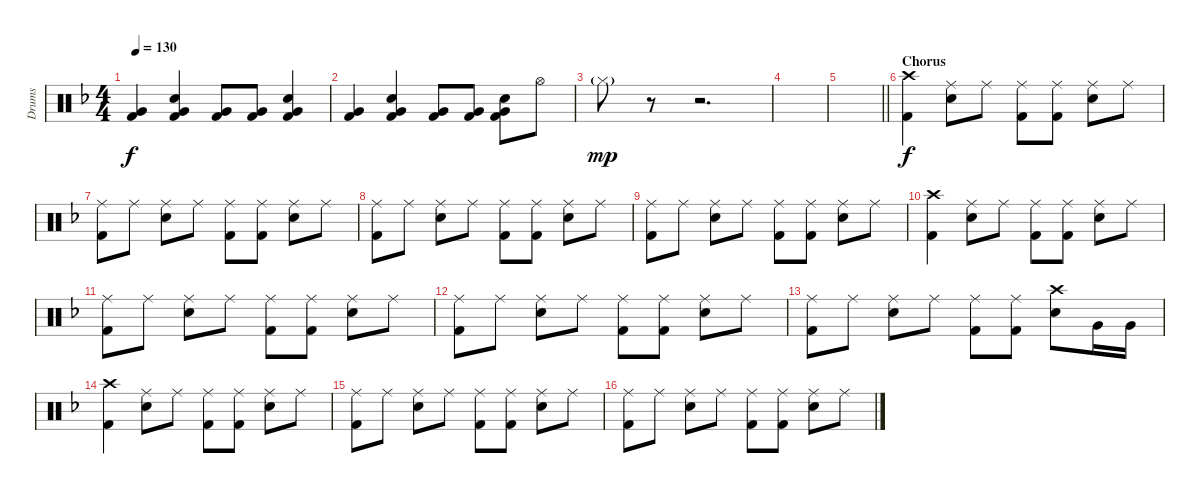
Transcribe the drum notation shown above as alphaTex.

\track ("Drums" "Drums") {instrument percussion}
\staff {score}
\articulation defaults
\ts (4 4)
\tempo 130
\clef neutral
\ks f
("Very Low Tom (hit)" "Kick (hit) 2").4{dy f} ("Snare (hit) 2" "Very Low Tom (hit)" "Kick (hit) 2").4 ("Very Low Tom (hit)" "Kick (hit) 2").8 ("Very Low Tom (hit)" "Kick (hit) 2").8 ("Snare (hit) 2" "Very Low Tom (hit)" "Kick (hit) 2").4 |
("Very Low Tom (hit)" "Kick (hit) 2").4 ("Snare (hit) 2" "Very Low Tom (hit)" "Kick (hit) 2").4 ("Very Low Tom (hit)" "Kick (hit) 2").8 ("Very Low Tom (hit)" "Kick (hit) 2").8 ("Snare (hit) 2" "Very Low Tom (hit)" "Kick (hit) 2").8 "Hi-Hat (open)".8 |
"Hi-Hat (closed)"{g}.8{dy mp} r.8 r.2{d} |
|
\barLineRight lightlight
|
\section ("" "Chorus")
("Crash high (hit)" "Kick (hit) 2").4{dy f} ("Ride (middle)" "Snare (hit) 2").8 "Ride (middle)".8 ("Ride (middle)" "Kick (hit) 2").8 ("Ride (middle)" "Kick (hit) 2").8 ("Ride (middle)" "Snare (hit) 2").8 "Ride (middle)".8 |
("Ride (middle)" "Kick (hit) 2").8 "Ride (middle)".8 ("Ride (middle)" "Snare (hit) 2").8 "Ride (middle)".8 ("Ride (middle)" "Kick (hit) 2").8 ("Ride (middle)" "Kick (hit) 2").8 ("Ride (middle)" "Snare (hit) 2").8 "Ride (middle)".8 |
("Ride (middle)" "Kick (hit) 2").8 "Ride (middle)".8 ("Ride (middle)" "Snare (hit) 2").8 "Ride (middle)".8 ("Ride (middle)" "Kick (hit) 2").8 ("Ride (middle)" "Kick (hit) 2").8 ("Ride (middle)" "Snare (hit) 2").8 "Ride (middle)".8 |
("Ride (middle)" "Kick (hit) 2").8 "Ride (middle)".8 ("Ride (middle)" "Snare (hit) 2").8 "Ride (middle)".8 ("Ride (middle)" "Kick (hit) 2").8 ("Ride (middle)" "Kick (hit) 2").8 ("Ride (middle)" "Snare (hit) 2").8 "Ride (middle)".8 |
("Crash high (hit)" "Kick (hit) 2").4 ("Ride (middle)" "Snare (hit) 2").8 "Ride (middle)".8 ("Ride (middle)" "Kick (hit) 2").8 ("Ride (middle)" "Kick (hit) 2").8 ("Ride (middle)" "Snare (hit) 2").8 "Ride (middle)".8 |
("Ride (middle)" "Kick (hit) 2").8 "Ride (middle)".8 ("Ride (middle)" "Snare (hit) 2").8 "Ride (middle)".8 ("Ride (middle)" "Kick (hit) 2").8 ("Ride (middle)" "Kick (hit) 2").8 ("Ride (middle)" "Snare (hit) 2").8 "Ride (middle)".8 |
("Ride (middle)" "Kick (hit) 2").8 "Ride (middle)".8 ("Ride (middle)" "Snare (hit) 2").8 "Ride (middle)".8 ("Ride (middle)" "Kick (hit) 2").8 ("Ride (middle)" "Kick (hit) 2").8 ("Ride (middle)" "Snare (hit) 2").8 "Ride (middle)".8 |
("Ride (middle)" "Kick (hit) 2").8 "Ride (middle)".8 ("Ride (middle)" "Snare (hit) 2").8 "Ride (middle)".8 ("Ride (middle)" "Kick (hit) 2").8 ("Ride (middle)" "Kick (hit) 2").8 ("Crash high (hit)" "Snare (hit) 2").8 "Very Low Tom (hit)".16 "Very Low Tom (hit)".16 |
("Crash high (hit)" "Kick (hit) 2").4 ("Ride (middle)" "Snare (hit) 2").8 "Ride (middle)".8 ("Ride (middle)" "Kick (hit) 2").8 ("Ride (middle)" "Kick (hit) 2").8 ("Ride (middle)" "Snare (hit) 2").8 "Ride (middle)".8 |
("Ride (middle)" "Kick (hit) 2").8 "Ride (middle)".8 ("Ride (middle)" "Snare (hit) 2").8 "Ride (middle)".8 ("Ride (middle)" "Kick (hit) 2").8 ("Ride (middle)" "Kick (hit) 2").8 ("Ride (middle)" "Snare (hit) 2").8 "Ride (middle)".8 |
("Ride (middle)" "Kick (hit) 2").8 "Ride (middle)".8 ("Ride (middle)" "Snare (hit) 2").8 "Ride (middle)".8 ("Ride (middle)" "Kick (hit) 2").8 ("Ride (middle)" "Kick (hit) 2").8 ("Ride (middle)" "Snare (hit) 2").8 "Ride (middle)".8
